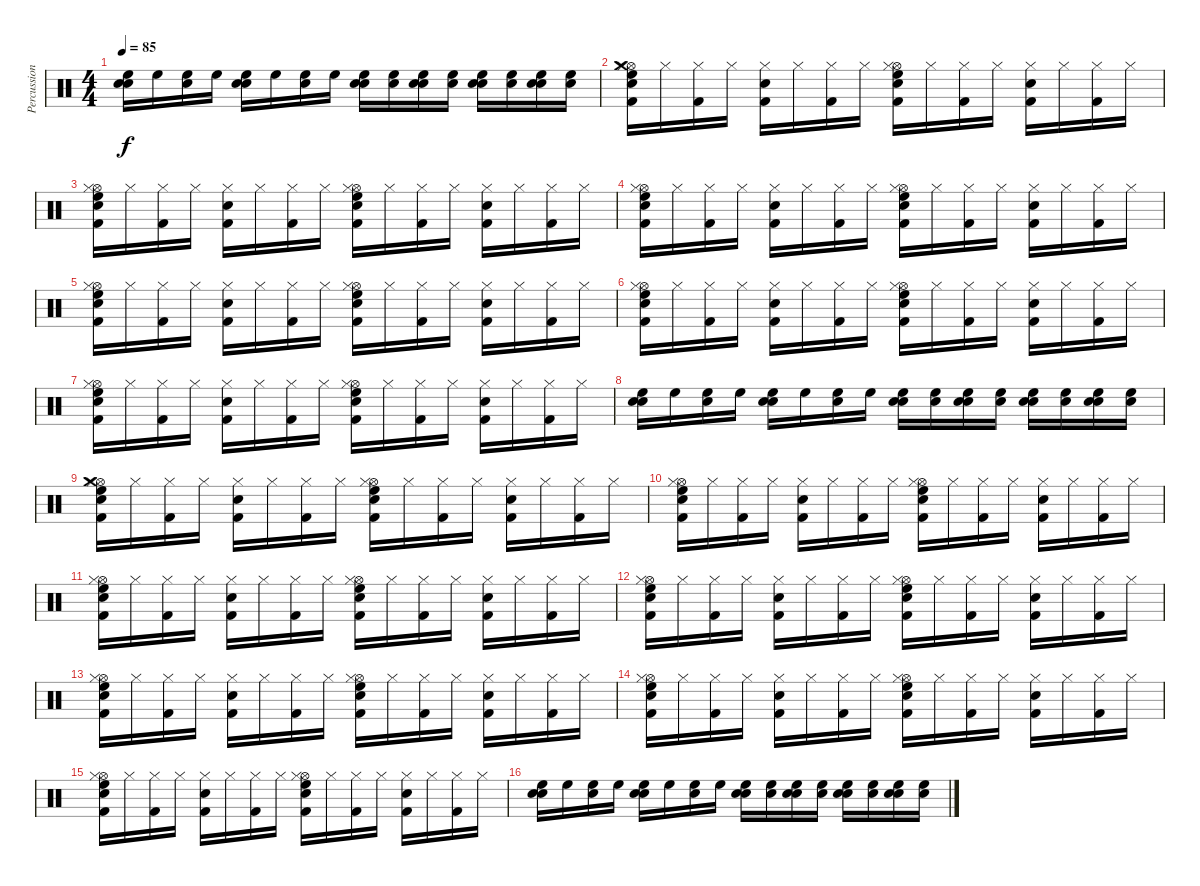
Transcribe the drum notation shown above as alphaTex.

\track ("Percussions" "Percussion") {instrument percussion}
\staff {score}
\articulation defaults
\ts (4 4)
\tempo 85
\clef neutral
\ks c
("Snare (hit) 2" "Hand Clap (hit)" "High Floor Tom (hit)").16{dy f} "High Floor Tom (hit)".16 ("Snare (hit) 2" "High Floor Tom (hit)").16 "High Floor Tom (hit)".16 ("Snare (hit) 2" "Hand Clap (hit)" "High Floor Tom (hit)").16 "High Floor Tom (hit)".16 ("Snare (hit) 2" "High Floor Tom (hit)").16 "High Floor Tom (hit)".16 ("Snare (hit) 2" "Hand Clap (hit)" "High Floor Tom (hit)").16 ("Snare (hit) 2" "High Floor Tom (hit)").16 ("Snare (hit) 2" "Hand Clap (hit)" "High Floor Tom (hit)").16 ("Snare (hit) 2" "High Floor Tom (hit)").16 ("Snare (hit) 2" "Hand Clap (hit)" "High Floor Tom (hit)").16 ("Snare (hit) 2" "High Floor Tom (hit)").16 ("Snare (hit) 2" "Hand Clap (hit)" "High Floor Tom (hit)").16 ("Snare (hit) 2" "High Floor Tom (hit)").16 |
("Hi-Hat (open)" "Snare (hit) 2" "Kick (hit) 2" "High Floor Tom (hit)" "Crash medium (hit)" "Hi-Hat (closed)").16 "Hi-Hat (closed)".16 ("Kick (hit) 2" "Hi-Hat (closed)").16 "Hi-Hat (closed)".16 ("Snare (hit) 2" "Kick (hit) 2" "Hi-Hat (closed)").16 "Hi-Hat (closed)".16 ("Kick (hit) 2" "Hi-Hat (closed)").16 "Hi-Hat (closed)".16 ("Hi-Hat (open)" "Snare (hit) 2" "Kick (hit) 2" "High Floor Tom (hit)" "Hi-Hat (closed)").16 "Hi-Hat (closed)".16 ("Kick (hit) 2" "Hi-Hat (closed)").16 "Hi-Hat (closed)".16 ("Snare (hit) 2" "Kick (hit) 2" "Hi-Hat (closed)").16 "Hi-Hat (closed)".16 ("Kick (hit) 2" "Hi-Hat (closed)").16 "Hi-Hat (closed)".16 |
("Hi-Hat (open)" "Snare (hit) 2" "Kick (hit) 2" "High Floor Tom (hit)" "Hi-Hat (closed)").16 "Hi-Hat (closed)".16 ("Kick (hit) 2" "Hi-Hat (closed)").16 "Hi-Hat (closed)".16 ("Snare (hit) 2" "Kick (hit) 2" "Hi-Hat (closed)").16 "Hi-Hat (closed)".16 ("Kick (hit) 2" "Hi-Hat (closed)").16 "Hi-Hat (closed)".16 ("Hi-Hat (open)" "Snare (hit) 2" "Kick (hit) 2" "High Floor Tom (hit)" "Hi-Hat (closed)").16 "Hi-Hat (closed)".16 ("Kick (hit) 2" "Hi-Hat (closed)").16 "Hi-Hat (closed)".16 ("Snare (hit) 2" "Kick (hit) 2" "Hi-Hat (closed)").16 "Hi-Hat (closed)".16 ("Kick (hit) 2" "Hi-Hat (closed)").16 "Hi-Hat (closed)".16 |
("Hi-Hat (open)" "Snare (hit) 2" "Kick (hit) 2" "High Floor Tom (hit)" "Hi-Hat (closed)").16 "Hi-Hat (closed)".16 ("Kick (hit) 2" "Hi-Hat (closed)").16 "Hi-Hat (closed)".16 ("Snare (hit) 2" "Kick (hit) 2" "Hi-Hat (closed)").16 "Hi-Hat (closed)".16 ("Kick (hit) 2" "Hi-Hat (closed)").16 "Hi-Hat (closed)".16 ("Hi-Hat (open)" "Snare (hit) 2" "Kick (hit) 2" "High Floor Tom (hit)" "Hi-Hat (closed)").16 "Hi-Hat (closed)".16 ("Kick (hit) 2" "Hi-Hat (closed)").16 "Hi-Hat (closed)".16 ("Snare (hit) 2" "Kick (hit) 2" "Hi-Hat (closed)").16 "Hi-Hat (closed)".16 ("Kick (hit) 2" "Hi-Hat (closed)").16 "Hi-Hat (closed)".16 |
("Hi-Hat (open)" "Snare (hit) 2" "Kick (hit) 2" "High Floor Tom (hit)" "Hi-Hat (closed)").16 "Hi-Hat (closed)".16 ("Kick (hit) 2" "Hi-Hat (closed)").16 "Hi-Hat (closed)".16 ("Snare (hit) 2" "Kick (hit) 2" "Hi-Hat (closed)").16 "Hi-Hat (closed)".16 ("Kick (hit) 2" "Hi-Hat (closed)").16 "Hi-Hat (closed)".16 ("Hi-Hat (open)" "Snare (hit) 2" "Kick (hit) 2" "High Floor Tom (hit)" "Hi-Hat (closed)").16 "Hi-Hat (closed)".16 ("Kick (hit) 2" "Hi-Hat (closed)").16 "Hi-Hat (closed)".16 ("Snare (hit) 2" "Kick (hit) 2" "Hi-Hat (closed)").16 "Hi-Hat (closed)".16 ("Kick (hit) 2" "Hi-Hat (closed)").16 "Hi-Hat (closed)".16 |
("Hi-Hat (open)" "Snare (hit) 2" "Kick (hit) 2" "High Floor Tom (hit)" "Hi-Hat (closed)").16 "Hi-Hat (closed)".16 ("Kick (hit) 2" "Hi-Hat (closed)").16 "Hi-Hat (closed)".16 ("Snare (hit) 2" "Kick (hit) 2" "Hi-Hat (closed)").16 "Hi-Hat (closed)".16 ("Kick (hit) 2" "Hi-Hat (closed)").16 "Hi-Hat (closed)".16 ("Hi-Hat (open)" "Snare (hit) 2" "Kick (hit) 2" "High Floor Tom (hit)" "Hi-Hat (closed)").16 "Hi-Hat (closed)".16 ("Kick (hit) 2" "Hi-Hat (closed)").16 "Hi-Hat (closed)".16 ("Snare (hit) 2" "Kick (hit) 2" "Hi-Hat (closed)").16 "Hi-Hat (closed)".16 ("Kick (hit) 2" "Hi-Hat (closed)").16 "Hi-Hat (closed)".16 |
("Hi-Hat (open)" "Snare (hit) 2" "Kick (hit) 2" "High Floor Tom (hit)" "Hi-Hat (closed)").16 "Hi-Hat (closed)".16 ("Kick (hit) 2" "Hi-Hat (closed)").16 "Hi-Hat (closed)".16 ("Snare (hit) 2" "Kick (hit) 2" "Hi-Hat (closed)").16 "Hi-Hat (closed)".16 ("Kick (hit) 2" "Hi-Hat (closed)").16 "Hi-Hat (closed)".16 ("Hi-Hat (open)" "Snare (hit) 2" "Kick (hit) 2" "High Floor Tom (hit)" "Hi-Hat (closed)").16 "Hi-Hat (closed)".16 ("Kick (hit) 2" "Hi-Hat (closed)").16 "Hi-Hat (closed)".16 ("Snare (hit) 2" "Kick (hit) 2" "Hi-Hat (closed)").16 "Hi-Hat (closed)".16 ("Kick (hit) 2" "Hi-Hat (closed)").16 "Hi-Hat (closed)".16 |
("Snare (hit) 2" "Hand Clap (hit)" "High Floor Tom (hit)").16 "High Floor Tom (hit)".16 ("Snare (hit) 2" "High Floor Tom (hit)").16 "High Floor Tom (hit)".16 ("Snare (hit) 2" "Hand Clap (hit)" "High Floor Tom (hit)").16 "High Floor Tom (hit)".16 ("Snare (hit) 2" "High Floor Tom (hit)").16 "High Floor Tom (hit)".16 ("Snare (hit) 2" "Hand Clap (hit)" "High Floor Tom (hit)").16 ("Snare (hit) 2" "High Floor Tom (hit)").16 ("Snare (hit) 2" "Hand Clap (hit)" "High Floor Tom (hit)").16 ("Snare (hit) 2" "High Floor Tom (hit)").16 ("Snare (hit) 2" "Hand Clap (hit)" "High Floor Tom (hit)").16 ("Snare (hit) 2" "High Floor Tom (hit)").16 ("Snare (hit) 2" "Hand Clap (hit)" "High Floor Tom (hit)").16 ("Snare (hit) 2" "High Floor Tom (hit)").16 |
("Hi-Hat (open)" "Snare (hit) 2" "Kick (hit) 2" "High Floor Tom (hit)" "Crash medium (hit)" "Hi-Hat (closed)").16 "Hi-Hat (closed)".16 ("Kick (hit) 2" "Hi-Hat (closed)").16 "Hi-Hat (closed)".16 ("Snare (hit) 2" "Kick (hit) 2" "Hi-Hat (closed)").16 "Hi-Hat (closed)".16 ("Kick (hit) 2" "Hi-Hat (closed)").16 "Hi-Hat (closed)".16 ("Hi-Hat (open)" "Snare (hit) 2" "Kick (hit) 2" "High Floor Tom (hit)" "Hi-Hat (closed)").16 "Hi-Hat (closed)".16 ("Kick (hit) 2" "Hi-Hat (closed)").16 "Hi-Hat (closed)".16 ("Snare (hit) 2" "Kick (hit) 2" "Hi-Hat (closed)").16 "Hi-Hat (closed)".16 ("Kick (hit) 2" "Hi-Hat (closed)").16 "Hi-Hat (closed)".16 |
("Hi-Hat (open)" "Snare (hit) 2" "Kick (hit) 2" "High Floor Tom (hit)" "Hi-Hat (closed)").16 "Hi-Hat (closed)".16 ("Kick (hit) 2" "Hi-Hat (closed)").16 "Hi-Hat (closed)".16 ("Snare (hit) 2" "Kick (hit) 2" "Hi-Hat (closed)").16 "Hi-Hat (closed)".16 ("Kick (hit) 2" "Hi-Hat (closed)").16 "Hi-Hat (closed)".16 ("Hi-Hat (open)" "Snare (hit) 2" "Kick (hit) 2" "High Floor Tom (hit)" "Hi-Hat (closed)").16 "Hi-Hat (closed)".16 ("Kick (hit) 2" "Hi-Hat (closed)").16 "Hi-Hat (closed)".16 ("Snare (hit) 2" "Kick (hit) 2" "Hi-Hat (closed)").16 "Hi-Hat (closed)".16 ("Kick (hit) 2" "Hi-Hat (closed)").16 "Hi-Hat (closed)".16 |
("Hi-Hat (open)" "Snare (hit) 2" "Kick (hit) 2" "High Floor Tom (hit)" "Hi-Hat (closed)").16 "Hi-Hat (closed)".16 ("Kick (hit) 2" "Hi-Hat (closed)").16 "Hi-Hat (closed)".16 ("Snare (hit) 2" "Kick (hit) 2" "Hi-Hat (closed)").16 "Hi-Hat (closed)".16 ("Kick (hit) 2" "Hi-Hat (closed)").16 "Hi-Hat (closed)".16 ("Hi-Hat (open)" "Snare (hit) 2" "Kick (hit) 2" "High Floor Tom (hit)" "Hi-Hat (closed)").16 "Hi-Hat (closed)".16 ("Kick (hit) 2" "Hi-Hat (closed)").16 "Hi-Hat (closed)".16 ("Snare (hit) 2" "Kick (hit) 2" "Hi-Hat (closed)").16 "Hi-Hat (closed)".16 ("Kick (hit) 2" "Hi-Hat (closed)").16 "Hi-Hat (closed)".16 |
("Hi-Hat (open)" "Snare (hit) 2" "Kick (hit) 2" "High Floor Tom (hit)" "Hi-Hat (closed)").16 "Hi-Hat (closed)".16 ("Kick (hit) 2" "Hi-Hat (closed)").16 "Hi-Hat (closed)".16 ("Snare (hit) 2" "Kick (hit) 2" "Hi-Hat (closed)").16 "Hi-Hat (closed)".16 ("Kick (hit) 2" "Hi-Hat (closed)").16 "Hi-Hat (closed)".16 ("Hi-Hat (open)" "Snare (hit) 2" "Kick (hit) 2" "High Floor Tom (hit)" "Hi-Hat (closed)").16 "Hi-Hat (closed)".16 ("Kick (hit) 2" "Hi-Hat (closed)").16 "Hi-Hat (closed)".16 ("Snare (hit) 2" "Kick (hit) 2" "Hi-Hat (closed)").16 "Hi-Hat (closed)".16 ("Kick (hit) 2" "Hi-Hat (closed)").16 "Hi-Hat (closed)".16 |
("Hi-Hat (open)" "Snare (hit) 2" "Kick (hit) 2" "High Floor Tom (hit)" "Hi-Hat (closed)").16 "Hi-Hat (closed)".16 ("Kick (hit) 2" "Hi-Hat (closed)").16 "Hi-Hat (closed)".16 ("Snare (hit) 2" "Kick (hit) 2" "Hi-Hat (closed)").16 "Hi-Hat (closed)".16 ("Kick (hit) 2" "Hi-Hat (closed)").16 "Hi-Hat (closed)".16 ("Hi-Hat (open)" "Snare (hit) 2" "Kick (hit) 2" "High Floor Tom (hit)" "Hi-Hat (closed)").16 "Hi-Hat (closed)".16 ("Kick (hit) 2" "Hi-Hat (closed)").16 "Hi-Hat (closed)".16 ("Snare (hit) 2" "Kick (hit) 2" "Hi-Hat (closed)").16 "Hi-Hat (closed)".16 ("Kick (hit) 2" "Hi-Hat (closed)").16 "Hi-Hat (closed)".16 |
("Hi-Hat (open)" "Snare (hit) 2" "Kick (hit) 2" "High Floor Tom (hit)" "Hi-Hat (closed)").16 "Hi-Hat (closed)".16 ("Kick (hit) 2" "Hi-Hat (closed)").16 "Hi-Hat (closed)".16 ("Snare (hit) 2" "Kick (hit) 2" "Hi-Hat (closed)").16 "Hi-Hat (closed)".16 ("Kick (hit) 2" "Hi-Hat (closed)").16 "Hi-Hat (closed)".16 ("Hi-Hat (open)" "Snare (hit) 2" "Kick (hit) 2" "High Floor Tom (hit)" "Hi-Hat (closed)").16 "Hi-Hat (closed)".16 ("Kick (hit) 2" "Hi-Hat (closed)").16 "Hi-Hat (closed)".16 ("Snare (hit) 2" "Kick (hit) 2" "Hi-Hat (closed)").16 "Hi-Hat (closed)".16 ("Kick (hit) 2" "Hi-Hat (closed)").16 "Hi-Hat (closed)".16 |
("Hi-Hat (open)" "Snare (hit) 2" "Kick (hit) 2" "High Floor Tom (hit)" "Hi-Hat (closed)").16 "Hi-Hat (closed)".16 ("Kick (hit) 2" "Hi-Hat (closed)").16 "Hi-Hat (closed)".16 ("Snare (hit) 2" "Kick (hit) 2" "Hi-Hat (closed)").16 "Hi-Hat (closed)".16 ("Kick (hit) 2" "Hi-Hat (closed)").16 "Hi-Hat (closed)".16 ("Hi-Hat (open)" "Snare (hit) 2" "Kick (hit) 2" "High Floor Tom (hit)" "Hi-Hat (closed)").16 "Hi-Hat (closed)".16 ("Kick (hit) 2" "Hi-Hat (closed)").16 "Hi-Hat (closed)".16 ("Snare (hit) 2" "Kick (hit) 2" "Hi-Hat (closed)").16 "Hi-Hat (closed)".16 ("Kick (hit) 2" "Hi-Hat (closed)").16 "Hi-Hat (closed)".16 |
("Snare (hit) 2" "Hand Clap (hit)" "High Floor Tom (hit)").16 "High Floor Tom (hit)".16 ("Snare (hit) 2" "High Floor Tom (hit)").16 "High Floor Tom (hit)".16 ("Snare (hit) 2" "Hand Clap (hit)" "High Floor Tom (hit)").16 "High Floor Tom (hit)".16 ("Snare (hit) 2" "High Floor Tom (hit)").16 "High Floor Tom (hit)".16 ("Snare (hit) 2" "Hand Clap (hit)" "High Floor Tom (hit)").16 ("Snare (hit) 2" "High Floor Tom (hit)").16 ("Snare (hit) 2" "Hand Clap (hit)" "High Floor Tom (hit)").16 ("Snare (hit) 2" "High Floor Tom (hit)").16 ("Snare (hit) 2" "Hand Clap (hit)" "High Floor Tom (hit)").16 ("Snare (hit) 2" "High Floor Tom (hit)").16 ("Snare (hit) 2" "Hand Clap (hit)" "High Floor Tom (hit)").16 ("Snare (hit) 2" "High Floor Tom (hit)").16
